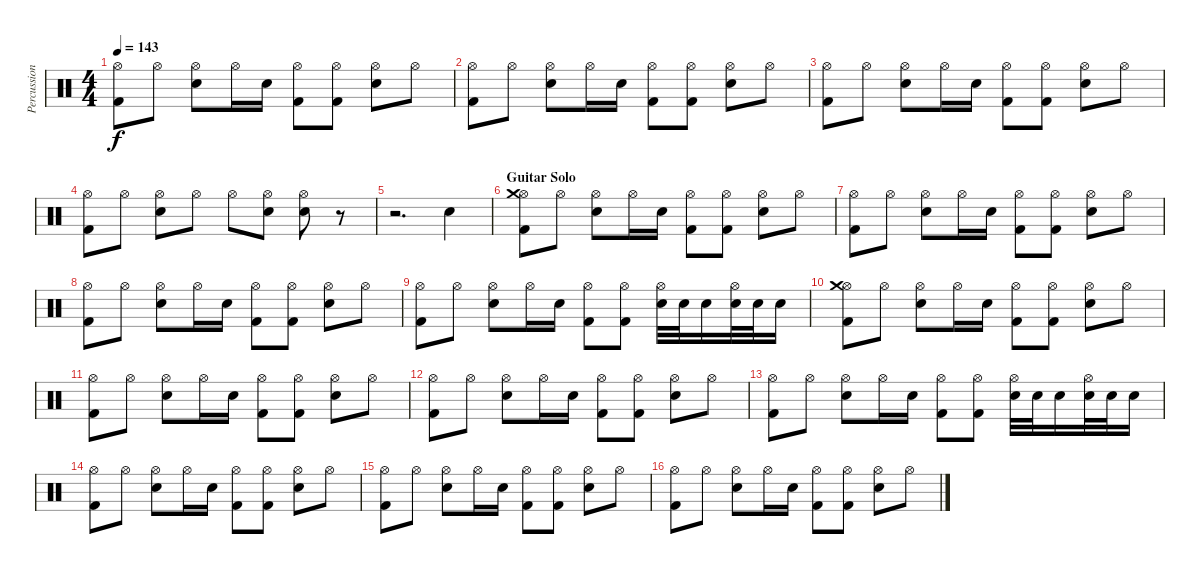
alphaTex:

\track ("Percussion" "Percussion") {instrument percussion}
\staff {score}
\articulation defaults
\ts (4 4)
\tempo 143
\clef neutral
\ks c
("Hi-Hat (open)" "Kick (hit) 2").8{dy f} "Hi-Hat (open)".8 ("Hi-Hat (open)" "Electric Snare (hit)").8 "Hi-Hat (open)".16 "Electric Snare (hit)".16 ("Hi-Hat (open)" "Kick (hit) 2").8 ("Hi-Hat (open)" "Kick (hit) 2").8 ("Hi-Hat (open)" "Electric Snare (hit)").8 "Hi-Hat (open)".8 |
("Hi-Hat (open)" "Kick (hit) 2").8 "Hi-Hat (open)".8 ("Hi-Hat (open)" "Electric Snare (hit)").8 "Hi-Hat (open)".16 "Electric Snare (hit)".16 ("Hi-Hat (open)" "Kick (hit) 2").8 ("Hi-Hat (open)" "Kick (hit) 2").8 ("Hi-Hat (open)" "Electric Snare (hit)").8 "Hi-Hat (open)".8 |
("Hi-Hat (open)" "Kick (hit) 2").8 "Hi-Hat (open)".8 ("Hi-Hat (open)" "Electric Snare (hit)").8 "Hi-Hat (open)".16 "Electric Snare (hit)".16 ("Hi-Hat (open)" "Kick (hit) 2").8 ("Hi-Hat (open)" "Kick (hit) 2").8 ("Hi-Hat (open)" "Electric Snare (hit)").8 "Hi-Hat (open)".8 |
("Hi-Hat (open)" "Kick (hit) 2").8 "Hi-Hat (open)".8 ("Hi-Hat (open)" "Electric Snare (hit)").8 "Hi-Hat (open)".8 "Hi-Hat (open)".8 ("Hi-Hat (open)" "Electric Snare (hit)").8 ("Hi-Hat (open)" "Electric Snare (hit)").8 r.8 |
r.2{d} "Electric Snare (hit)".4 |
\section ("" "Guitar Solo")
("Hi-Hat (open)" "Crash medium (hit)" "Kick (hit) 2").8 "Hi-Hat (open)".8 ("Hi-Hat (open)" "Electric Snare (hit)").8 "Hi-Hat (open)".16 "Electric Snare (hit)".16 ("Hi-Hat (open)" "Kick (hit) 2").8 ("Hi-Hat (open)" "Kick (hit) 2").8 ("Hi-Hat (open)" "Electric Snare (hit)").8 "Hi-Hat (open)".8 |
("Hi-Hat (open)" "Kick (hit) 2").8 "Hi-Hat (open)".8 ("Hi-Hat (open)" "Electric Snare (hit)").8 "Hi-Hat (open)".16 "Electric Snare (hit)".16 ("Hi-Hat (open)" "Kick (hit) 2").8 ("Hi-Hat (open)" "Kick (hit) 2").8 ("Hi-Hat (open)" "Electric Snare (hit)").8 "Hi-Hat (open)".8 |
("Hi-Hat (open)" "Kick (hit) 2").8 "Hi-Hat (open)".8 ("Hi-Hat (open)" "Electric Snare (hit)").8 "Hi-Hat (open)".16 "Electric Snare (hit)".16 ("Hi-Hat (open)" "Kick (hit) 2").8 ("Hi-Hat (open)" "Kick (hit) 2").8 ("Hi-Hat (open)" "Electric Snare (hit)").8 "Hi-Hat (open)".8 |
("Hi-Hat (open)" "Kick (hit) 2").8 "Hi-Hat (open)".8 ("Hi-Hat (open)" "Electric Snare (hit)").8 "Hi-Hat (open)".16 "Electric Snare (hit)".16 ("Hi-Hat (open)" "Kick (hit) 2").8 ("Hi-Hat (open)" "Kick (hit) 2").8 ("Hi-Hat (open)" "Electric Snare (hit)").32 "Electric Snare (hit)".32 "Electric Snare (hit)".16 ("Hi-Hat (open)" "Electric Snare (hit)").32 "Electric Snare (hit)".32 "Electric Snare (hit)".16 |
("Hi-Hat (open)" "Crash medium (hit)" "Kick (hit) 2").8 "Hi-Hat (open)".8 ("Hi-Hat (open)" "Electric Snare (hit)").8 "Hi-Hat (open)".16 "Electric Snare (hit)".16 ("Hi-Hat (open)" "Kick (hit) 2").8 ("Hi-Hat (open)" "Kick (hit) 2").8 ("Hi-Hat (open)" "Electric Snare (hit)").8 "Hi-Hat (open)".8 |
("Hi-Hat (open)" "Kick (hit) 2").8 "Hi-Hat (open)".8 ("Hi-Hat (open)" "Electric Snare (hit)").8 "Hi-Hat (open)".16 "Electric Snare (hit)".16 ("Hi-Hat (open)" "Kick (hit) 2").8 ("Hi-Hat (open)" "Kick (hit) 2").8 ("Hi-Hat (open)" "Electric Snare (hit)").8 "Hi-Hat (open)".8 |
("Hi-Hat (open)" "Kick (hit) 2").8 "Hi-Hat (open)".8 ("Hi-Hat (open)" "Electric Snare (hit)").8 "Hi-Hat (open)".16 "Electric Snare (hit)".16 ("Hi-Hat (open)" "Kick (hit) 2").8 ("Hi-Hat (open)" "Kick (hit) 2").8 ("Hi-Hat (open)" "Electric Snare (hit)").8 "Hi-Hat (open)".8 |
("Hi-Hat (open)" "Kick (hit) 2").8 "Hi-Hat (open)".8 ("Hi-Hat (open)" "Electric Snare (hit)").8 "Hi-Hat (open)".16 "Electric Snare (hit)".16 ("Hi-Hat (open)" "Kick (hit) 2").8 ("Hi-Hat (open)" "Kick (hit) 2").8 ("Hi-Hat (open)" "Electric Snare (hit)").32 "Electric Snare (hit)".32 "Electric Snare (hit)".16 ("Hi-Hat (open)" "Electric Snare (hit)").32 "Electric Snare (hit)".32 "Electric Snare (hit)".16 |
("Hi-Hat (open)" "Kick (hit) 2").8 "Hi-Hat (open)".8 ("Hi-Hat (open)" "Electric Snare (hit)").8 "Hi-Hat (open)".16 "Electric Snare (hit)".16 ("Hi-Hat (open)" "Kick (hit) 2").8 ("Hi-Hat (open)" "Kick (hit) 2").8 ("Hi-Hat (open)" "Electric Snare (hit)").8 "Hi-Hat (open)".8 |
("Hi-Hat (open)" "Kick (hit) 2").8 "Hi-Hat (open)".8 ("Hi-Hat (open)" "Electric Snare (hit)").8 "Hi-Hat (open)".16 "Electric Snare (hit)".16 ("Hi-Hat (open)" "Kick (hit) 2").8 ("Hi-Hat (open)" "Kick (hit) 2").8 ("Hi-Hat (open)" "Electric Snare (hit)").8 "Hi-Hat (open)".8 |
("Hi-Hat (open)" "Kick (hit) 2").8 "Hi-Hat (open)".8 ("Hi-Hat (open)" "Electric Snare (hit)").8 "Hi-Hat (open)".16 "Electric Snare (hit)".16 ("Hi-Hat (open)" "Kick (hit) 2").8 ("Hi-Hat (open)" "Kick (hit) 2").8 ("Hi-Hat (open)" "Electric Snare (hit)").8 "Hi-Hat (open)".8
